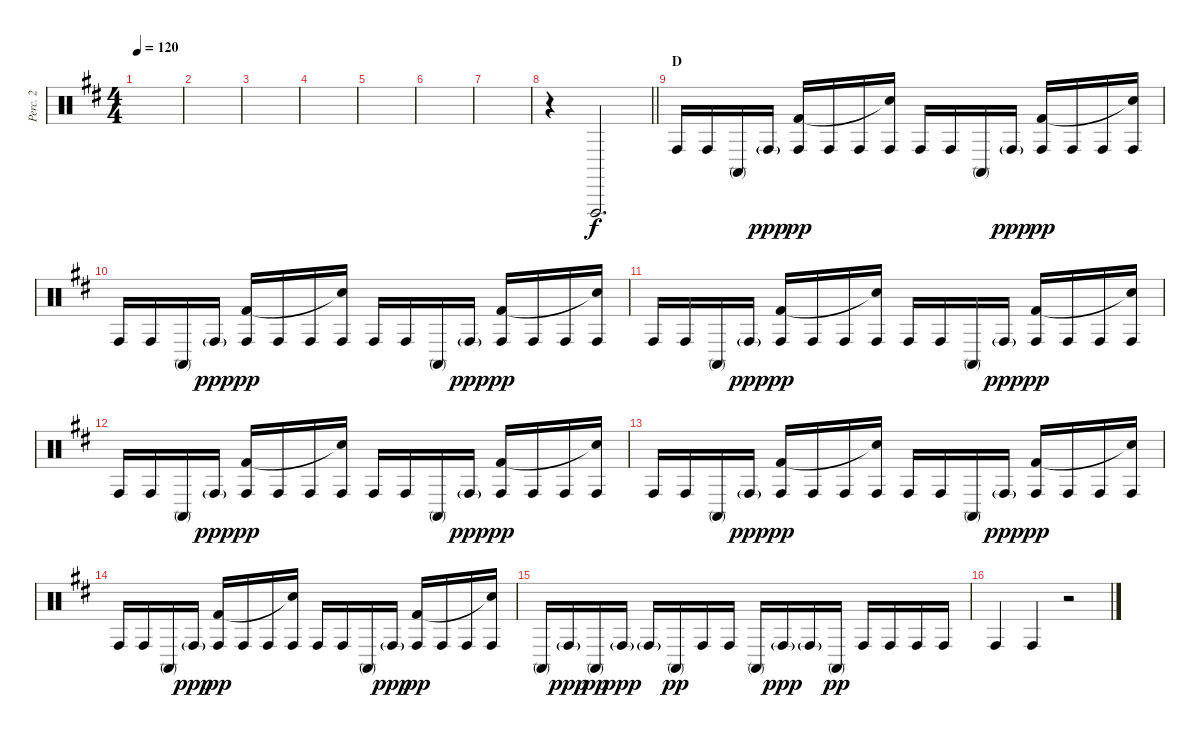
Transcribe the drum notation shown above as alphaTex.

\track ("Perc. 2" "Perc. 2") {instrument percussion}
\staff {score}
\articulation defaults
\ts (4 4)
\tempo 120
\clef neutral
\ks d
|
|
|
|
|
|
|
\barLineRight lightlight
r.4 "Vibraslap (hit)".2{d} |
\section ("" "D")
"Conga high (hit)".16 "Conga high (hit)".16 "Conga high (mute)".16 "Conga high (hit)"{g}.16{dy ppp} ("Conga high (hit)" "Kick (hit) 2").16{dy pp} "Conga high (hit)".16 "Conga high (hit)".16 ("Conga high (hit)" "Snare (hit)"{t}).16 "Conga high (hit)".16 "Conga high (hit)".16 "Conga high (mute)".16 "Conga high (hit)"{g}.16{dy ppp} ("Conga high (hit)" "Kick (hit) 2").16{dy pp} "Conga high (hit)".16 "Conga high (hit)".16 ("Conga high (hit)" "Snare (hit)"{t}).16 |
"Conga high (hit)".16 "Conga high (hit)".16 "Conga high (mute)".16 "Conga high (hit)"{g}.16{dy ppp} ("Conga high (hit)" "Kick (hit) 2").16{dy pp} "Conga high (hit)".16 "Conga high (hit)".16 ("Conga high (hit)" "Snare (hit)"{t}).16 "Conga high (hit)".16 "Conga high (hit)".16 "Conga high (mute)".16 "Conga high (hit)"{g}.16{dy ppp} ("Conga high (hit)" "Kick (hit) 2").16{dy pp} "Conga high (hit)".16 "Conga high (hit)".16 ("Conga high (hit)" "Snare (hit)"{t}).16 |
"Conga high (hit)".16 "Conga high (hit)".16 "Conga high (mute)".16 "Conga high (hit)"{g}.16{dy ppp} ("Conga high (hit)" "Kick (hit) 2").16{dy pp} "Conga high (hit)".16 "Conga high (hit)".16 ("Conga high (hit)" "Snare (hit)"{t}).16 "Conga high (hit)".16 "Conga high (hit)".16 "Conga high (mute)".16 "Conga high (hit)"{g}.16{dy ppp} ("Conga high (hit)" "Kick (hit) 2").16{dy pp} "Conga high (hit)".16 "Conga high (hit)".16 ("Conga high (hit)" "Snare (hit)"{t}).16 |
"Conga high (hit)".16 "Conga high (hit)".16 "Conga high (mute)".16 "Conga high (hit)"{g}.16{dy ppp} ("Conga high (hit)" "Kick (hit) 2").16{dy pp} "Conga high (hit)".16 "Conga high (hit)".16 ("Conga high (hit)" "Snare (hit)"{t}).16 "Conga high (hit)".16 "Conga high (hit)".16 "Conga high (mute)".16 "Conga high (hit)"{g}.16{dy ppp} ("Conga high (hit)" "Kick (hit) 2").16{dy pp} "Conga high (hit)".16 "Conga high (hit)".16 ("Conga high (hit)" "Snare (hit)"{t}).16 |
"Conga high (hit)".16 "Conga high (hit)".16 "Conga high (mute)".16 "Conga high (hit)"{g}.16{dy ppp} ("Conga high (hit)" "Kick (hit) 2").16{dy pp} "Conga high (hit)".16 "Conga high (hit)".16 ("Conga high (hit)" "Snare (hit)"{t}).16 "Conga high (hit)".16 "Conga high (hit)".16 "Conga high (mute)".16 "Conga high (hit)"{g}.16{dy ppp} ("Conga high (hit)" "Kick (hit) 2").16{dy pp} "Conga high (hit)".16 "Conga high (hit)".16 ("Conga high (hit)" "Snare (hit)"{t}).16 |
"Conga high (hit)".16 "Conga high (hit)".16 "Conga high (mute)".16 "Conga high (hit)"{g}.16{dy ppp} ("Conga high (hit)" "Kick (hit) 2").16{dy pp} "Conga high (hit)".16 "Conga high (hit)".16 ("Conga high (hit)" "Snare (hit)"{t}).16 "Conga high (hit)".16 "Conga high (hit)".16 "Conga high (mute)".16 "Conga high (hit)"{g}.16{dy ppp} ("Conga high (hit)" "Kick (hit) 2").16{dy pp} "Conga high (hit)".16 "Conga high (hit)".16 ("Conga high (hit)" "Snare (hit)"{t}).16 |
"Conga high (mute)".16 "Conga high (hit)"{g}.16{dy ppp} "Conga high (mute)".16{dy pp} "Conga high (hit)"{g}.16{dy ppp} "Conga high (hit)"{g}.16 "Conga high (mute)".16{dy pp} "Conga high (hit)".16 "Conga high (hit)".16 "Conga high (mute)".16 "Conga high (hit)"{g}.16{dy ppp} "Conga high (hit)"{g}.16 "Conga high (mute)".16{dy pp} "Conga high (hit)".16 "Conga high (hit)".16 "Conga high (hit)".16 "Conga high (hit)".16 |
"Conga high (hit)".4 "Conga high (hit)".4 r.2
